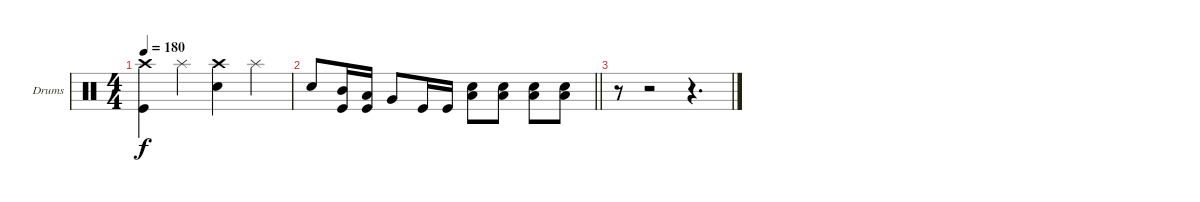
\bracketExtendMode groupsimilarinstruments
\firstSystemTrackNameOrientation horizontal
\otherSystemsTrackNameOrientation horizontal
\track ("Drumkit" "Drums") {instrument percussion}
\staff {score}
\articulation defaults
\ts (4 4)
\tempo 180
\clef neutral
\ks c
("Crash high (hit)" "Kick (hit)").4{dy f} "Splash (hit)".4 ("Crash high (hit)" "Snare (hit) 2").4 "Splash (hit)".4 |
\barLineRight lightlight "Snare (hit) 2".8
("Mid Tom (hit)" "Kick (hit)").16 ("Low Tom (hit)" "Kick (hit)").16 "Very Low Tom (hit)".8 "Kick (hit)".16 "Kick (hit)".16 ("Low Tom (hit)" "Snare (hit) 2").8 ("Low Tom (hit)" "Snare (hit) 2").8 ("Low Tom (hit)" "Snare (hit) 2").8 ("Low Tom (hit)" "Snare (hit) 2").8 |
r.8 r.2 r.4{d}
